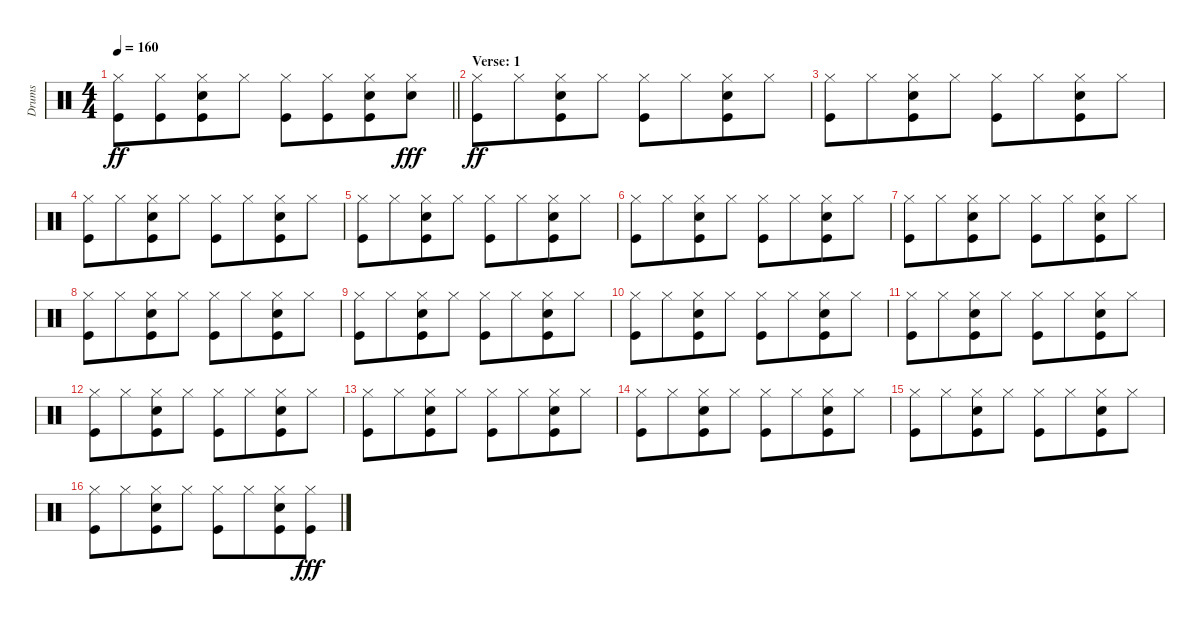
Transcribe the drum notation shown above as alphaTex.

\track ("Drums" "Drums") {instrument percussion}
\staff {score}
\articulation defaults
\ts (4 4)
\tempo 160
\clef neutral
\barLineRight lightlight
\ks c
("Hi-Hat (closed)" "Kick (hit)").8{dy ff} ("Hi-Hat (closed)" "Kick (hit)").8{beam merge} ("Hi-Hat (closed)" "Snare (hit) 2" "Kick (hit)").8 "Hi-Hat (closed)".8 ("Hi-Hat (closed)" "Kick (hit)").8 ("Hi-Hat (closed)" "Kick (hit)").8{beam merge} ("Hi-Hat (closed)" "Snare (hit) 2" "Kick (hit)").8 ("Hi-Hat (closed)" "Snare (hit) 2").8{dy fff} |
\section ("" "Verse: 1")
("Hi-Hat (closed)" "Kick (hit)").8{dy ff} "Hi-Hat (closed)".8{beam merge} ("Hi-Hat (closed)" "Snare (hit) 2" "Kick (hit)").8 "Hi-Hat (closed)".8 ("Hi-Hat (closed)" "Kick (hit)").8 "Hi-Hat (closed)".8{beam merge} ("Hi-Hat (closed)" "Snare (hit) 2" "Kick (hit)").8 "Hi-Hat (closed)".8 |
("Hi-Hat (closed)" "Kick (hit)").8 "Hi-Hat (closed)".8{beam merge} ("Hi-Hat (closed)" "Snare (hit) 2" "Kick (hit)").8 "Hi-Hat (closed)".8 ("Hi-Hat (closed)" "Kick (hit)").8 "Hi-Hat (closed)".8{beam merge} ("Hi-Hat (closed)" "Snare (hit) 2" "Kick (hit)").8 "Hi-Hat (closed)".8 |
("Hi-Hat (closed)" "Kick (hit)").8 "Hi-Hat (closed)".8{beam merge} ("Hi-Hat (closed)" "Snare (hit) 2" "Kick (hit)").8 "Hi-Hat (closed)".8 ("Hi-Hat (closed)" "Kick (hit)").8 "Hi-Hat (closed)".8{beam merge} ("Hi-Hat (closed)" "Snare (hit) 2" "Kick (hit)").8 "Hi-Hat (closed)".8 |
("Hi-Hat (closed)" "Kick (hit)").8 "Hi-Hat (closed)".8{beam merge} ("Hi-Hat (closed)" "Snare (hit) 2" "Kick (hit)").8 "Hi-Hat (closed)".8 ("Hi-Hat (closed)" "Kick (hit)").8 "Hi-Hat (closed)".8{beam merge} ("Hi-Hat (closed)" "Snare (hit) 2" "Kick (hit)").8 "Hi-Hat (closed)".8 |
("Hi-Hat (closed)" "Kick (hit)").8 "Hi-Hat (closed)".8{beam merge} ("Hi-Hat (closed)" "Snare (hit) 2" "Kick (hit)").8 "Hi-Hat (closed)".8 ("Hi-Hat (closed)" "Kick (hit)").8 "Hi-Hat (closed)".8{beam merge} ("Hi-Hat (closed)" "Snare (hit) 2" "Kick (hit)").8 "Hi-Hat (closed)".8 |
("Hi-Hat (closed)" "Kick (hit)").8 "Hi-Hat (closed)".8{beam merge} ("Hi-Hat (closed)" "Snare (hit) 2" "Kick (hit)").8 "Hi-Hat (closed)".8 ("Hi-Hat (closed)" "Kick (hit)").8 "Hi-Hat (closed)".8{beam merge} ("Hi-Hat (closed)" "Snare (hit) 2" "Kick (hit)").8 "Hi-Hat (closed)".8 |
("Hi-Hat (closed)" "Kick (hit)").8 "Hi-Hat (closed)".8{beam merge} ("Hi-Hat (closed)" "Snare (hit) 2" "Kick (hit)").8 "Hi-Hat (closed)".8 ("Hi-Hat (closed)" "Kick (hit)").8 "Hi-Hat (closed)".8{beam merge} ("Hi-Hat (closed)" "Snare (hit) 2" "Kick (hit)").8 "Hi-Hat (closed)".8 |
("Hi-Hat (closed)" "Kick (hit)").8 "Hi-Hat (closed)".8{beam merge} ("Hi-Hat (closed)" "Snare (hit) 2" "Kick (hit)").8 "Hi-Hat (closed)".8 ("Hi-Hat (closed)" "Kick (hit)").8 "Hi-Hat (closed)".8{beam merge} ("Hi-Hat (closed)" "Snare (hit) 2" "Kick (hit)").8 "Hi-Hat (closed)".8 |
("Hi-Hat (closed)" "Kick (hit)").8 "Hi-Hat (closed)".8{beam merge} ("Hi-Hat (closed)" "Snare (hit) 2" "Kick (hit)").8 "Hi-Hat (closed)".8 ("Hi-Hat (closed)" "Kick (hit)").8 "Hi-Hat (closed)".8{beam merge} ("Hi-Hat (closed)" "Snare (hit) 2" "Kick (hit)").8 "Hi-Hat (closed)".8 |
("Hi-Hat (closed)" "Kick (hit)").8 "Hi-Hat (closed)".8{beam merge} ("Hi-Hat (closed)" "Snare (hit) 2" "Kick (hit)").8 "Hi-Hat (closed)".8 ("Hi-Hat (closed)" "Kick (hit)").8 "Hi-Hat (closed)".8{beam merge} ("Hi-Hat (closed)" "Snare (hit) 2" "Kick (hit)").8 "Hi-Hat (closed)".8 |
("Hi-Hat (closed)" "Kick (hit)").8 "Hi-Hat (closed)".8{beam merge} ("Hi-Hat (closed)" "Snare (hit) 2" "Kick (hit)").8 "Hi-Hat (closed)".8 ("Hi-Hat (closed)" "Kick (hit)").8 "Hi-Hat (closed)".8{beam merge} ("Hi-Hat (closed)" "Snare (hit) 2" "Kick (hit)").8 "Hi-Hat (closed)".8 |
("Hi-Hat (closed)" "Kick (hit)").8 "Hi-Hat (closed)".8{beam merge} ("Hi-Hat (closed)" "Snare (hit) 2" "Kick (hit)").8 "Hi-Hat (closed)".8 ("Hi-Hat (closed)" "Kick (hit)").8 "Hi-Hat (closed)".8{beam merge} ("Hi-Hat (closed)" "Snare (hit) 2" "Kick (hit)").8 "Hi-Hat (closed)".8 |
("Hi-Hat (closed)" "Kick (hit)").8 "Hi-Hat (closed)".8{beam merge} ("Hi-Hat (closed)" "Snare (hit) 2" "Kick (hit)").8 "Hi-Hat (closed)".8 ("Hi-Hat (closed)" "Kick (hit)").8 "Hi-Hat (closed)".8{beam merge} ("Hi-Hat (closed)" "Snare (hit) 2" "Kick (hit)").8 "Hi-Hat (closed)".8 |
("Hi-Hat (closed)" "Kick (hit)").8 "Hi-Hat (closed)".8{beam merge} ("Hi-Hat (closed)" "Snare (hit) 2" "Kick (hit)").8 "Hi-Hat (closed)".8 ("Hi-Hat (closed)" "Kick (hit)").8 "Hi-Hat (closed)".8{beam merge} ("Hi-Hat (closed)" "Snare (hit) 2" "Kick (hit)").8 "Hi-Hat (closed)".8 |
("Hi-Hat (closed)" "Kick (hit)").8 "Hi-Hat (closed)".8{beam merge} ("Hi-Hat (closed)" "Snare (hit) 2" "Kick (hit)").8 "Hi-Hat (closed)".8 ("Hi-Hat (closed)" "Kick (hit)").8 "Hi-Hat (closed)".8{beam merge} ("Hi-Hat (closed)" "Snare (hit) 2" "Kick (hit)").8 ("Hi-Hat (closed)" "Kick (hit)").8{dy fff}
